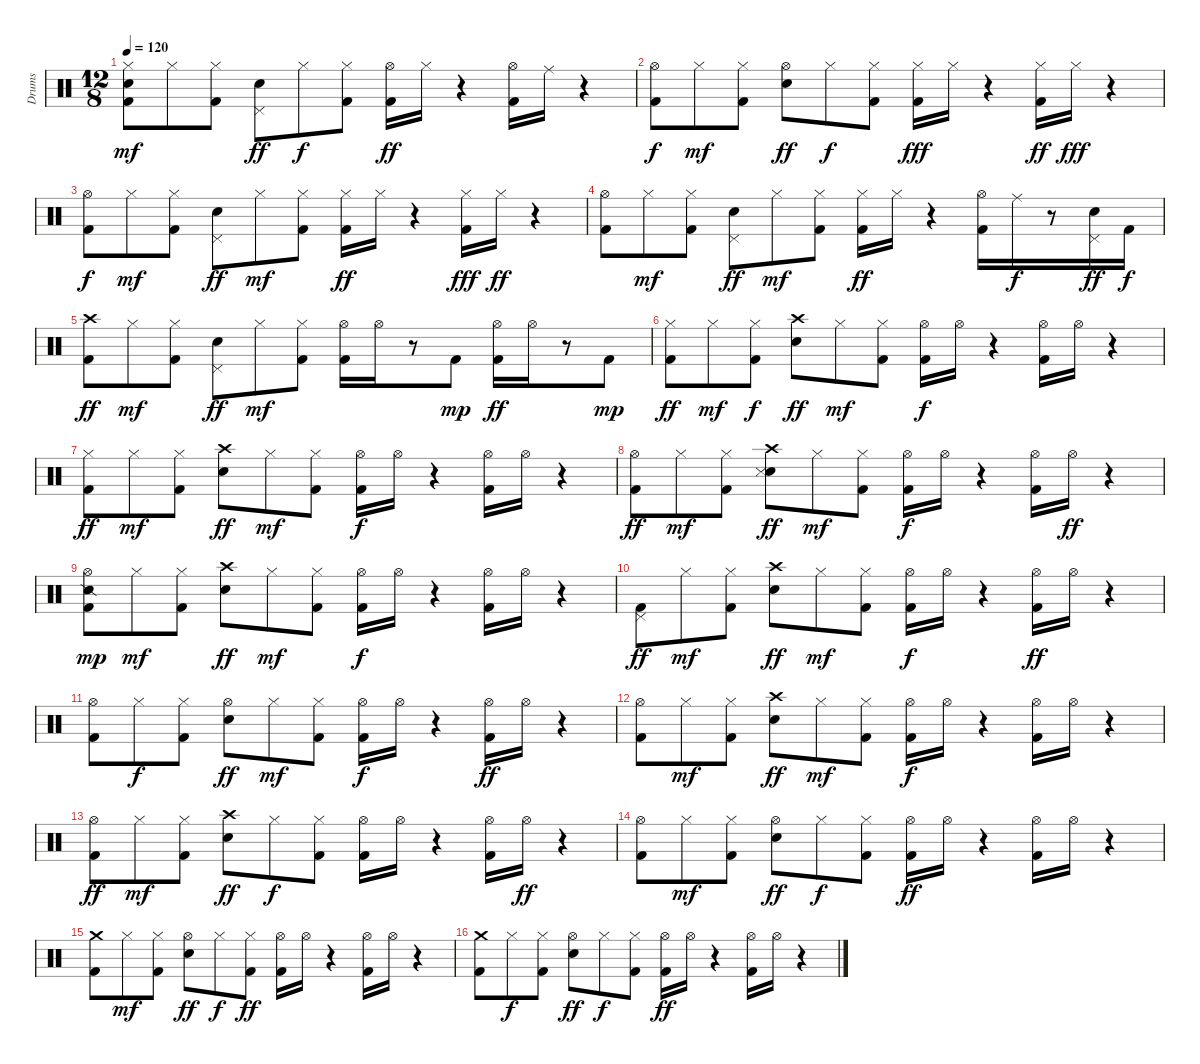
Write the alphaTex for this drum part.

\track ("Drums" "Drums") {instrument percussion}
\staff {score}
\articulation defaults
\ts (12 8)
\tempo 120
\clef neutral
\ks c
("Hi-Hat (closed)" "Kick (hit) 2" "Snare (hit) 2").8{dy mf} "Hi-Hat (closed)".8 ("Hi-Hat (closed)" "Kick (hit) 2").8 ("Pedal Hi-Hat (hit)" "Snare (hit) 2").8{dy ff} "Hi-Hat (closed)".8{dy f} ("Hi-Hat (closed)" "Kick (hit) 2").8 ("Hi-Hat (open)" "Kick (hit) 2").16{dy ff} "Hi-Hat (closed)".16 r.4 ("Hi-Hat (open)" "Kick (hit) 2").16 "Ride (middle)".16 r.4 |
("Hi-Hat (open)" "Kick (hit) 2").8{dy f} "Hi-Hat (closed)".8{dy mf} ("Hi-Hat (closed)" "Kick (hit) 2").8 ("Hi-Hat (open)" "Snare (hit) 2").8{dy ff} "Hi-Hat (closed)".8{dy f} ("Hi-Hat (closed)" "Kick (hit) 2").8 ("Hi-Hat (closed)" "Kick (hit) 2").16{dy fff} "Hi-Hat (closed)".16 r.4 ("Hi-Hat (closed)" "Kick (hit) 2").16{dy ff} "Hi-Hat (closed)".16{dy fff} r.4 |
("Hi-Hat (open)" "Kick (hit) 2").8{dy f} "Hi-Hat (closed)".8{dy mf} ("Hi-Hat (closed)" "Kick (hit) 2").8 ("Pedal Hi-Hat (hit)" "Snare (hit) 2").8{dy ff} "Hi-Hat (closed)".8{dy mf} ("Hi-Hat (closed)" "Kick (hit) 2").8 ("Hi-Hat (closed)" "Kick (hit) 2").16{dy ff} "Hi-Hat (closed)".16 r.4 ("Hi-Hat (closed)" "Kick (hit) 2").16{dy fff} "Hi-Hat (closed)".16{dy ff} r.4 |
("Hi-Hat (open)" "Kick (hit) 2").8 "Hi-Hat (closed)".8{dy mf} ("Hi-Hat (closed)" "Kick (hit) 2").8 ("Pedal Hi-Hat (hit)" "Snare (hit) 2").8{dy ff} "Hi-Hat (closed)".8{dy mf} ("Hi-Hat (closed)" "Kick (hit) 2").8 ("Hi-Hat (closed)" "Kick (hit) 2").16{dy ff} "Hi-Hat (closed)".16 r.4 ("Hi-Hat (open)" "Kick (hit) 2").16 "Ride (middle)".16{dy f} r.8 ("Pedal Hi-Hat (hit)" "Snare (hit) 2").16{dy ff} "Kick (hit) 2".16{dy f} |
("Crash high (hit)" "Kick (hit) 2").8{dy ff} "Hi-Hat (closed)".8{dy mf} ("Hi-Hat (closed)" "Kick (hit) 2").8 ("Pedal Hi-Hat (hit)" "Snare (hit) 2").8{dy ff} "Hi-Hat (closed)".8{dy mf} ("Hi-Hat (closed)" "Kick (hit) 2").8 ("Hi-Hat (open)" "Kick (hit) 2").16 "Hi-Hat (open)".16 r.8 "Kick (hit) 2".8{dy mp} ("Hi-Hat (open)" "Kick (hit) 2").16{dy ff} "Hi-Hat (open)".16 r.8 "Kick (hit) 2".8{dy mp} |
("Hi-Hat (closed)" "Kick (hit) 2").8{dy ff} "Hi-Hat (closed)".8{dy mf} ("Hi-Hat (closed)" "Kick (hit) 2").8{dy f} ("Crash high (hit)" "Snare (hit) 2").8{dy ff} "Hi-Hat (closed)".8{dy mf} ("Hi-Hat (closed)" "Kick (hit) 2").8 ("Hi-Hat (open)" "Kick (hit) 2").16{dy f} "Hi-Hat (open)".16 r.4 ("Hi-Hat (open)" "Kick (hit) 2").16 "Hi-Hat (open)".16 r.4 |
("Hi-Hat (closed)" "Kick (hit) 2").8{dy ff} "Hi-Hat (closed)".8{dy mf} ("Hi-Hat (closed)" "Kick (hit) 2").8 ("Crash high (hit)" "Snare (hit) 2").8{dy ff} "Hi-Hat (closed)".8{dy mf} ("Hi-Hat (closed)" "Kick (hit) 2").8 ("Hi-Hat (open)" "Kick (hit) 2").16{dy f} "Hi-Hat (open)".16 r.4 ("Hi-Hat (open)" "Kick (hit) 2").16 "Hi-Hat (open)".16 r.4 |
("Hi-Hat (open)" "Kick (hit) 2").8{dy ff} "Hi-Hat (closed)".8{dy mf} ("Hi-Hat (closed)" "Kick (hit) 2").8 ("Crash high (hit)" "Snare (hit) 2" "Snare (side stick) 3").8{dy ff} "Hi-Hat (closed)".8{dy mf} ("Hi-Hat (closed)" "Kick (hit) 2").8 ("Hi-Hat (open)" "Kick (hit) 2").16{dy f} "Hi-Hat (open)".16 r.4 ("Hi-Hat (open)" "Kick (hit) 2").16 "Hi-Hat (open)".16{dy ff} r.4 |
("Hi-Hat (open)" "Kick (hit) 2" "Snare (side stick) 2").8{dy mp} "Hi-Hat (closed)".8{dy mf} ("Hi-Hat (closed)" "Kick (hit) 2").8 ("Crash high (hit)" "Snare (hit) 2").8{dy ff} "Hi-Hat (closed)".8{dy mf} ("Hi-Hat (closed)" "Kick (hit) 2").8 ("Hi-Hat (open)" "Kick (hit) 2").16{dy f} "Hi-Hat (open)".16 r.4 ("Hi-Hat (open)" "Kick (hit) 2").16 "Hi-Hat (open)".16 r.4 |
("Pedal Hi-Hat (hit)" "Kick (hit) 2").8{dy ff} "Hi-Hat (closed)".8{dy mf} ("Hi-Hat (closed)" "Kick (hit) 2").8 ("Crash high (hit)" "Snare (hit) 2").8{dy ff} "Hi-Hat (closed)".8{dy mf} ("Hi-Hat (closed)" "Kick (hit) 2").8 ("Hi-Hat (open)" "Kick (hit) 2").16{dy f} "Hi-Hat (open)".16 r.4 ("Hi-Hat (open)" "Kick (hit) 2").16{dy ff} "Hi-Hat (open)".16 r.4 |
("Hi-Hat (open)" "Kick (hit) 2").8 "Hi-Hat (closed)".8{dy f} ("Hi-Hat (closed)" "Kick (hit) 2").8 ("Hi-Hat (open)" "Snare (hit) 2").8{dy ff} "Hi-Hat (closed)".8{dy mf} ("Hi-Hat (closed)" "Kick (hit) 2").8 ("Hi-Hat (open)" "Kick (hit) 2").16{dy f} "Hi-Hat (open)".16 r.4 ("Hi-Hat (open)" "Kick (hit) 2").16{dy ff} "Hi-Hat (open)".16 r.4 |
("Hi-Hat (open)" "Kick (hit) 2").8 "Hi-Hat (closed)".8{dy mf} ("Hi-Hat (closed)" "Kick (hit) 2").8 ("Crash high (hit)" "Snare (hit) 2").8{dy ff} "Hi-Hat (closed)".8{dy mf} ("Hi-Hat (closed)" "Kick (hit) 2").8 ("Hi-Hat (open)" "Kick (hit) 2").16{dy f} "Hi-Hat (open)".16 r.4 ("Hi-Hat (open)" "Kick (hit) 2").16 "Hi-Hat (open)".16 r.4 |
("Hi-Hat (open)" "Kick (hit) 2").8{dy ff} "Hi-Hat (closed)".8{dy mf} ("Hi-Hat (closed)" "Kick (hit) 2").8 ("Crash high (hit)" "Snare (hit) 2").8{dy ff} "Hi-Hat (closed)".8{dy f} ("Hi-Hat (closed)" "Kick (hit) 2").8 ("Hi-Hat (open)" "Kick (hit) 2").16 "Hi-Hat (open)".16 r.4 ("Hi-Hat (open)" "Kick (hit) 2").16 "Hi-Hat (open)".16{dy ff} r.4 |
("Hi-Hat (open)" "Kick (hit) 2").8 "Hi-Hat (closed)".8{dy mf} ("Hi-Hat (closed)" "Kick (hit) 2").8 ("Hi-Hat (open)" "Snare (hit) 2").8{dy ff} "Hi-Hat (closed)".8{dy f} ("Hi-Hat (closed)" "Kick (hit) 2").8 ("Hi-Hat (open)" "Kick (hit) 2").16{dy ff} "Hi-Hat (open)".16 r.4 ("Hi-Hat (open)" "Kick (hit) 2").16 "Hi-Hat (open)".16 r.4 |
("Crash medium (hit)" "Kick (hit) 2").8 "Hi-Hat (closed)".8{dy mf} ("Hi-Hat (closed)" "Kick (hit) 2").8 ("Hi-Hat (open)" "Snare (hit) 2").8{dy ff} "Hi-Hat (closed)".8{dy f} ("Hi-Hat (closed)" "Kick (hit) 2").8{dy ff} ("Hi-Hat (open)" "Kick (hit) 2").16 "Hi-Hat (open)".16 r.4 ("Hi-Hat (open)" "Kick (hit) 2").16 "Hi-Hat (open)".16 r.4 |
("Crash medium (hit)" "Kick (hit) 2").8 "Hi-Hat (closed)".8{dy f} ("Hi-Hat (closed)" "Kick (hit) 2").8 ("Hi-Hat (open)" "Snare (hit) 2").8{dy ff} "Hi-Hat (closed)".8{dy f} ("Hi-Hat (closed)" "Kick (hit) 2").8 ("Hi-Hat (open)" "Kick (hit) 2").16{dy ff} "Hi-Hat (open)".16 r.4 ("Hi-Hat (open)" "Kick (hit) 2").16 "Hi-Hat (open)".16 r.4
